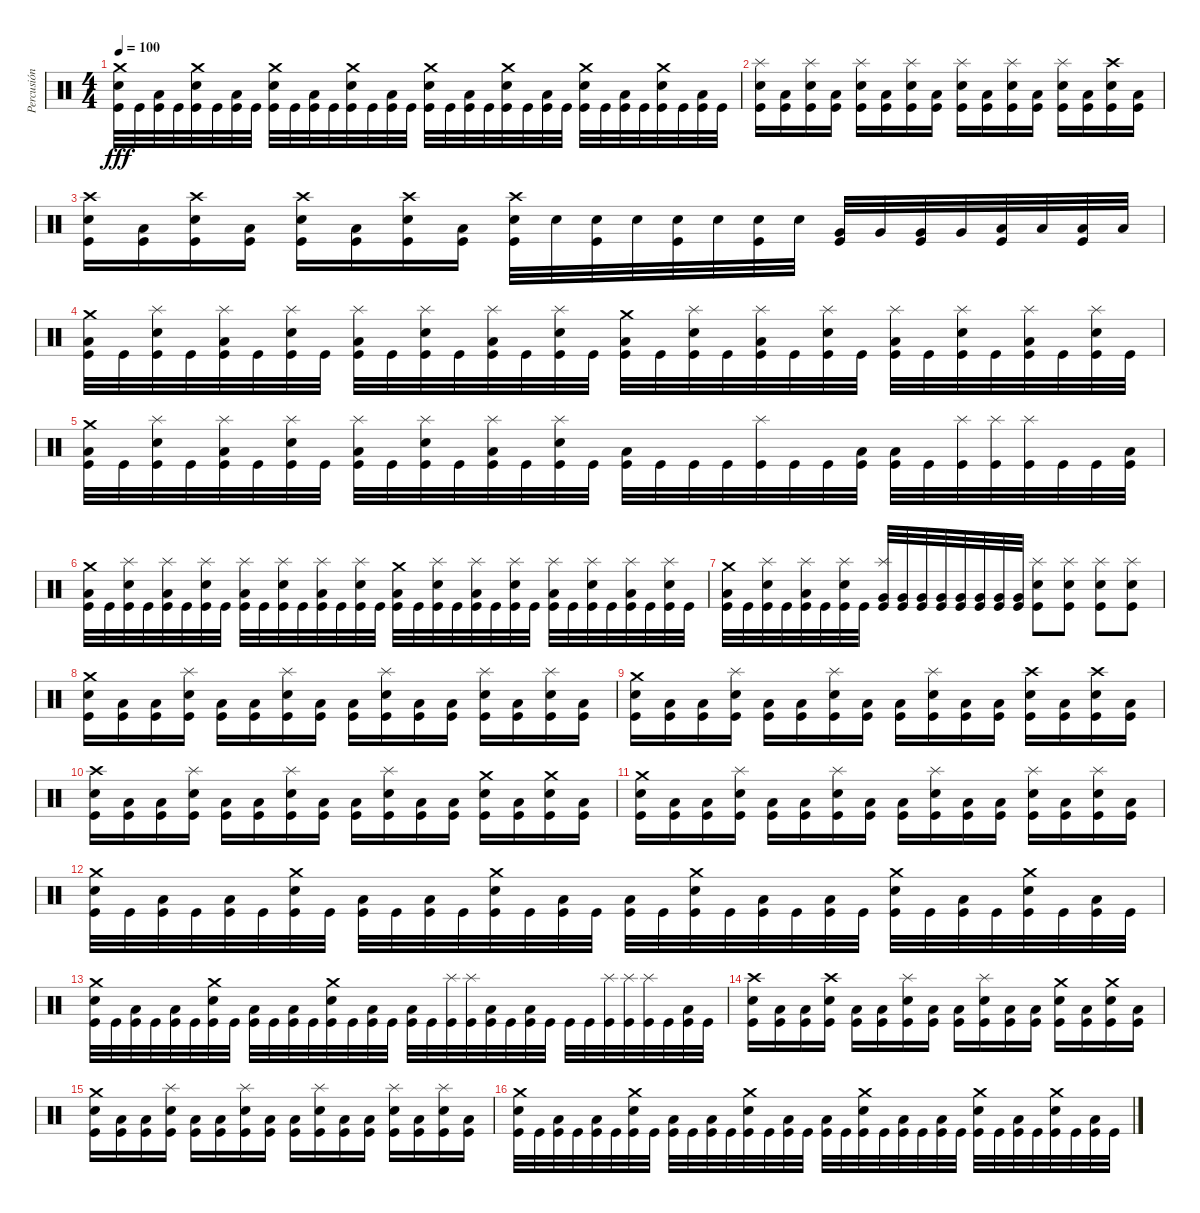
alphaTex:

\track ("Percusión" "Percusión") {instrument percussion}
\staff {score}
\articulation defaults
\ts (4 4)
\tempo 100
\clef neutral
\ks c
("Crash medium (hit)" "Snare (hit) 2" "Kick (hit)").32{dy fff} "Kick (hit)".32 ("Low Floor Tom (hit)" "Kick (hit)").32 "Kick (hit)".32 ("Crash medium (hit)" "Snare (hit) 2" "Kick (hit)").32 "Kick (hit)".32 ("Low Floor Tom (hit)" "Kick (hit)").32 "Kick (hit)".32 ("Crash medium (hit)" "Snare (hit) 2" "Kick (hit)").32 "Kick (hit)".32 ("Low Floor Tom (hit)" "Kick (hit)").32 "Kick (hit)".32 ("Crash medium (hit)" "Snare (hit) 2" "Kick (hit)").32 "Kick (hit)".32 ("Low Floor Tom (hit)" "Kick (hit)").32 "Kick (hit)".32 ("Crash medium (hit)" "Snare (hit) 2" "Kick (hit)").32 "Kick (hit)".32 ("Low Floor Tom (hit)" "Kick (hit)").32 "Kick (hit)".32 ("Crash medium (hit)" "Snare (hit) 2" "Kick (hit)").32 "Kick (hit)".32 ("Low Floor Tom (hit)" "Kick (hit)").32 "Kick (hit)".32 ("Crash medium (hit)" "Snare (hit) 2" "Kick (hit)").32 "Kick (hit)".32 ("Low Floor Tom (hit)" "Kick (hit)").32 "Kick (hit)".32 ("Crash medium (hit)" "Snare (hit) 2" "Kick (hit)").32 "Kick (hit)".32 ("Low Floor Tom (hit)" "Kick (hit)").32 "Kick (hit)".32 |
("Splash (hit)" "Snare (hit) 2" "Kick (hit)").16 ("Low Floor Tom (hit)" "Kick (hit)").16 ("Splash (hit)" "Snare (hit) 2" "Kick (hit)").16 ("Low Floor Tom (hit)" "Kick (hit)").16 ("Splash (hit)" "Snare (hit) 2" "Kick (hit)").16 ("Low Floor Tom (hit)" "Kick (hit)").16 ("Splash (hit)" "Snare (hit) 2" "Kick (hit)").16 ("Low Floor Tom (hit)" "Kick (hit)").16 ("Splash (hit)" "Snare (hit) 2" "Kick (hit)").16 ("Low Floor Tom (hit)" "Kick (hit)").16 ("Splash (hit)" "Snare (hit) 2" "Kick (hit)").16 ("Low Floor Tom (hit)" "Kick (hit)").16 ("Splash (hit)" "Snare (hit) 2" "Kick (hit)").16 ("Low Floor Tom (hit)" "Kick (hit)").16 ("Crash high (hit)" "Snare (hit) 2" "Kick (hit)").16 ("Low Floor Tom (hit)" "Kick (hit)").16 |
("Crash high (hit)" "Snare (hit) 2" "Kick (hit)").16 ("Low Floor Tom (hit)" "Kick (hit)").16 ("Crash high (hit)" "Snare (hit) 2" "Kick (hit)").16 ("Low Floor Tom (hit)" "Kick (hit)").16 ("Crash high (hit)" "Snare (hit) 2" "Kick (hit)").16 ("Low Floor Tom (hit)" "Kick (hit)").16 ("Crash high (hit)" "Snare (hit) 2" "Kick (hit)").16 ("Low Floor Tom (hit)" "Kick (hit)").16 ("Crash high (hit)" "Snare (hit) 2" "Kick (hit)").32 "Snare (hit) 2".32 ("Snare (hit) 2" "Kick (hit)").32 "Snare (hit) 2".32 ("Snare (hit) 2" "Kick (hit)").32 "Snare (hit) 2".32 ("Snare (hit) 2" "Kick (hit)").32 "Snare (hit) 2".32 ("Very Low Tom (hit)" "Kick (hit)").32 "Very Low Tom (hit)".32 ("Very Low Tom (hit)" "Kick (hit)").32 "Very Low Tom (hit)".32 ("Low Floor Tom (hit)" "Kick (hit)").32 "Low Floor Tom (hit)".32 ("Low Floor Tom (hit)" "Kick (hit)").32 "Low Floor Tom (hit)".32 |
("Crash medium (hit)" "Low Floor Tom (hit)" "Kick (hit)").32 "Kick (hit)".32 ("Splash (hit)" "Snare (hit) 2" "Kick (hit)").32 "Kick (hit)".32 ("Splash (hit)" "Low Floor Tom (hit)" "Kick (hit)").32 "Kick (hit)".32 ("Splash (hit)" "Snare (hit) 2" "Kick (hit)").32 "Kick (hit)".32 ("Splash (hit)" "Low Floor Tom (hit)" "Kick (hit)").32 "Kick (hit)".32 ("Splash (hit)" "Snare (hit) 2" "Kick (hit)").32 "Kick (hit)".32 ("Splash (hit)" "Low Floor Tom (hit)" "Kick (hit)").32 "Kick (hit)".32 ("Splash (hit)" "Snare (hit) 2" "Kick (hit)").32 "Kick (hit)".32 ("Crash medium (hit)" "Low Floor Tom (hit)" "Kick (hit)").32 "Kick (hit)".32 ("Splash (hit)" "Snare (hit) 2" "Kick (hit)").32 "Kick (hit)".32 ("Splash (hit)" "Low Floor Tom (hit)" "Kick (hit)").32 "Kick (hit)".32 ("Splash (hit)" "Snare (hit) 2" "Kick (hit)").32 "Kick (hit)".32 ("Splash (hit)" "Low Floor Tom (hit)" "Kick (hit)").32 "Kick (hit)".32 ("Splash (hit)" "Snare (hit) 2" "Kick (hit)").32 "Kick (hit)".32 ("Splash (hit)" "Low Floor Tom (hit)" "Kick (hit)").32 "Kick (hit)".32 ("Splash (hit)" "Snare (hit) 2" "Kick (hit)").32 "Kick (hit)".32 |
("Crash medium (hit)" "Low Floor Tom (hit)" "Kick (hit)").32 "Kick (hit)".32 ("Splash (hit)" "Snare (hit) 2" "Kick (hit)").32 "Kick (hit)".32 ("Splash (hit)" "Low Floor Tom (hit)" "Kick (hit)").32 "Kick (hit)".32 ("Splash (hit)" "Snare (hit) 2" "Kick (hit)").32 "Kick (hit)".32 ("Splash (hit)" "Low Floor Tom (hit)" "Kick (hit)").32 "Kick (hit)".32 ("Splash (hit)" "Snare (hit) 2" "Kick (hit)").32 "Kick (hit)".32 ("Splash (hit)" "Low Floor Tom (hit)" "Kick (hit)").32 "Kick (hit)".32 ("Splash (hit)" "Snare (hit) 2" "Kick (hit)").32 "Kick (hit)".32 ("Low Floor Tom (hit)" "Kick (hit)").32 "Kick (hit)".32 "Kick (hit)".32 "Kick (hit)".32 ("Splash (hit)" "Kick (hit)").32 "Kick (hit)".32 "Kick (hit)".32 ("Low Floor Tom (hit)" "Kick (hit)").32 ("Low Floor Tom (hit)" "Kick (hit)").32 "Kick (hit)".32 ("Splash (hit)" "Kick (hit)").32 ("Splash (hit)" "Kick (hit)").32 ("Splash (hit)" "Kick (hit)").32 "Kick (hit)".32 "Kick (hit)".32 ("Low Floor Tom (hit)" "Kick (hit)").32 |
("Crash medium (hit)" "Low Floor Tom (hit)" "Kick (hit)").32 "Kick (hit)".32 ("Splash (hit)" "Snare (hit) 2" "Kick (hit)").32 "Kick (hit)".32 ("Splash (hit)" "Low Floor Tom (hit)" "Kick (hit)").32 "Kick (hit)".32 ("Splash (hit)" "Snare (hit) 2" "Kick (hit)").32 "Kick (hit)".32 ("Splash (hit)" "Low Floor Tom (hit)" "Kick (hit)").32 "Kick (hit)".32 ("Splash (hit)" "Snare (hit) 2" "Kick (hit)").32 "Kick (hit)".32 ("Splash (hit)" "Low Floor Tom (hit)" "Kick (hit)").32 "Kick (hit)".32 ("Splash (hit)" "Snare (hit) 2" "Kick (hit)").32 "Kick (hit)".32 ("Crash medium (hit)" "Low Floor Tom (hit)" "Kick (hit)").32 "Kick (hit)".32 ("Splash (hit)" "Snare (hit) 2" "Kick (hit)").32 "Kick (hit)".32 ("Splash (hit)" "Low Floor Tom (hit)" "Kick (hit)").32 "Kick (hit)".32 ("Splash (hit)" "Snare (hit) 2" "Kick (hit)").32 "Kick (hit)".32 ("Splash (hit)" "Low Floor Tom (hit)" "Kick (hit)").32 "Kick (hit)".32 ("Splash (hit)" "Snare (hit) 2" "Kick (hit)").32 "Kick (hit)".32 ("Splash (hit)" "Low Floor Tom (hit)" "Kick (hit)").32 "Kick (hit)".32 ("Splash (hit)" "Snare (hit) 2" "Kick (hit)").32 "Kick (hit)".32 |
("Crash medium (hit)" "Low Floor Tom (hit)" "Kick (hit)").32 "Kick (hit)".32 ("Splash (hit)" "Snare (hit) 2" "Kick (hit)").32 "Kick (hit)".32 ("Splash (hit)" "Low Floor Tom (hit)" "Kick (hit)").32 "Kick (hit)".32 ("Splash (hit)" "Snare (hit) 2" "Kick (hit)").32 "Kick (hit)".32 ("Splash (hit)" "Very Low Tom (hit)" "Kick (hit)").32 ("Very Low Tom (hit)" "Kick (hit)").32 ("Very Low Tom (hit)" "Kick (hit)").32 ("Very Low Tom (hit)" "Kick (hit)").32 ("Very Low Tom (hit)" "Kick (hit)").32 ("Very Low Tom (hit)" "Kick (hit)").32 ("Very Low Tom (hit)" "Kick (hit)").32 ("Very Low Tom (hit)" "Kick (hit)").32 ("Splash (hit)" "Snare (hit) 2" "Kick (hit)").8 ("Splash (hit)" "Snare (hit) 2" "Kick (hit)").8 ("Splash (hit)" "Snare (hit) 2" "Kick (hit)").8 ("Splash (hit)" "Snare (hit) 2" "Kick (hit)").8 |
("Crash medium (hit)" "Snare (hit) 2" "Kick (hit)").16 ("Low Floor Tom (hit)" "Kick (hit)").16 ("Low Floor Tom (hit)" "Kick (hit)").16 ("Splash (hit)" "Snare (hit) 2" "Kick (hit)").16 ("Low Floor Tom (hit)" "Kick (hit)").16 ("Low Floor Tom (hit)" "Kick (hit)").16 ("Splash (hit)" "Snare (hit) 2" "Kick (hit)").16 ("Low Floor Tom (hit)" "Kick (hit)").16 ("Low Floor Tom (hit)" "Kick (hit)").16 ("Splash (hit)" "Snare (hit) 2" "Kick (hit)").16 ("Low Floor Tom (hit)" "Kick (hit)").16 ("Low Floor Tom (hit)" "Kick (hit)").16 ("Splash (hit)" "Snare (hit) 2" "Kick (hit)").16 ("Low Floor Tom (hit)" "Kick (hit)").16 ("Splash (hit)" "Snare (hit) 2" "Kick (hit)").16 ("Low Floor Tom (hit)" "Kick (hit)").16 |
("Crash medium (hit)" "Snare (hit) 2" "Kick (hit)").16 ("Low Floor Tom (hit)" "Kick (hit)").16 ("Low Floor Tom (hit)" "Kick (hit)").16 ("Splash (hit)" "Snare (hit) 2" "Kick (hit)").16 ("Low Floor Tom (hit)" "Kick (hit)").16 ("Low Floor Tom (hit)" "Kick (hit)").16 ("Splash (hit)" "Snare (hit) 2" "Kick (hit)").16 ("Low Floor Tom (hit)" "Kick (hit)").16 ("Low Floor Tom (hit)" "Kick (hit)").16 ("Splash (hit)" "Snare (hit) 2" "Kick (hit)").16 ("Low Floor Tom (hit)" "Kick (hit)").16 ("Low Floor Tom (hit)" "Kick (hit)").16 ("Crash high (hit)" "Snare (hit) 2" "Kick (hit)").16 ("Low Floor Tom (hit)" "Kick (hit)").16 ("Crash high (hit)" "Snare (hit) 2" "Kick (hit)").16 ("Low Floor Tom (hit)" "Kick (hit)").16 |
("Crash high (hit)" "Snare (hit) 2" "Kick (hit)").16 ("Low Floor Tom (hit)" "Kick (hit)").16 ("Low Floor Tom (hit)" "Kick (hit)").16 ("Splash (hit)" "Snare (hit) 2" "Kick (hit)").16 ("Low Floor Tom (hit)" "Kick (hit)").16 ("Low Floor Tom (hit)" "Kick (hit)").16 ("Splash (hit)" "Snare (hit) 2" "Kick (hit)").16 ("Low Floor Tom (hit)" "Kick (hit)").16 ("Low Floor Tom (hit)" "Kick (hit)").16 ("Splash (hit)" "Snare (hit) 2" "Kick (hit)").16 ("Low Floor Tom (hit)" "Kick (hit)").16 ("Low Floor Tom (hit)" "Kick (hit)").16 ("Crash medium (hit)" "Snare (hit) 2" "Kick (hit)").16 ("Low Floor Tom (hit)" "Kick (hit)").16 ("Crash medium (hit)" "Snare (hit) 2" "Kick (hit)").16 ("Low Floor Tom (hit)" "Kick (hit)").16 |
("Crash medium (hit)" "Snare (hit) 2" "Kick (hit)").16 ("Low Floor Tom (hit)" "Kick (hit)").16 ("Low Floor Tom (hit)" "Kick (hit)").16 ("Splash (hit)" "Snare (hit) 2" "Kick (hit)").16 ("Low Floor Tom (hit)" "Kick (hit)").16 ("Low Floor Tom (hit)" "Kick (hit)").16 ("Splash (hit)" "Snare (hit) 2" "Kick (hit)").16 ("Low Floor Tom (hit)" "Kick (hit)").16 ("Low Floor Tom (hit)" "Kick (hit)").16 ("Splash (hit)" "Snare (hit) 2" "Kick (hit)").16 ("Low Floor Tom (hit)" "Kick (hit)").16 ("Low Floor Tom (hit)" "Kick (hit)").16 ("Splash (hit)" "Snare (hit) 2" "Kick (hit)").16 ("Low Floor Tom (hit)" "Kick (hit)").16 ("Splash (hit)" "Snare (hit) 2" "Kick (hit)").16 ("Low Floor Tom (hit)" "Kick (hit)").16 |
("Crash medium (hit)" "Snare (hit) 2" "Kick (hit)").32 "Kick (hit)".32 ("Low Floor Tom (hit)" "Kick (hit)").32 "Kick (hit)".32 ("Low Floor Tom (hit)" "Kick (hit)").32 "Kick (hit)".32 ("Crash medium (hit)" "Snare (hit) 2" "Kick (hit)").32 "Kick (hit)".32 ("Low Floor Tom (hit)" "Kick (hit)").32 "Kick (hit)".32 ("Low Floor Tom (hit)" "Kick (hit)").32 "Kick (hit)".32 ("Crash medium (hit)" "Snare (hit) 2" "Kick (hit)").32 "Kick (hit)".32 ("Low Floor Tom (hit)" "Kick (hit)").32 "Kick (hit)".32 ("Low Floor Tom (hit)" "Kick (hit)").32 "Kick (hit)".32 ("Crash medium (hit)" "Snare (hit) 2" "Kick (hit)").32 "Kick (hit)".32 ("Low Floor Tom (hit)" "Kick (hit)").32 "Kick (hit)".32 ("Low Floor Tom (hit)" "Kick (hit)").32 "Kick (hit)".32 ("Crash medium (hit)" "Snare (hit) 2" "Kick (hit)").32 "Kick (hit)".32 ("Low Floor Tom (hit)" "Kick (hit)").32 "Kick (hit)".32 ("Crash medium (hit)" "Snare (hit) 2" "Kick (hit)").32 "Kick (hit)".32 ("Low Floor Tom (hit)" "Kick (hit)").32 "Kick (hit)".32 |
("Crash medium (hit)" "Snare (hit) 2" "Kick (hit)").32 "Kick (hit)".32 ("Low Floor Tom (hit)" "Kick (hit)").32 "Kick (hit)".32 ("Low Floor Tom (hit)" "Kick (hit)").32 "Kick (hit)".32 ("Crash medium (hit)" "Snare (hit) 2" "Kick (hit)").32 "Kick (hit)".32 ("Low Floor Tom (hit)" "Kick (hit)").32 "Kick (hit)".32 ("Low Floor Tom (hit)" "Kick (hit)").32 "Kick (hit)".32 ("Crash medium (hit)" "Snare (hit) 2" "Kick (hit)").32 "Kick (hit)".32 ("Low Floor Tom (hit)" "Kick (hit)").32 "Kick (hit)".32 ("Low Floor Tom (hit)" "Kick (hit)").32 "Kick (hit)".32 ("Splash (hit)" "Kick (hit)").32 ("Splash (hit)" "Kick (hit)").32 ("Low Floor Tom (hit)" "Kick (hit)").32 "Kick (hit)".32 ("Low Floor Tom (hit)" "Kick (hit)").32 "Kick (hit)".32 "Kick (hit)".32 "Kick (hit)".32 ("Splash (hit)" "Kick (hit)").32 ("Splash (hit)" "Kick (hit)").32 ("Splash (hit)" "Kick (hit)").32 "Kick (hit)".32 ("Low Floor Tom (hit)" "Kick (hit)").32 "Kick (hit)".32 |
("Crash high (hit)" "Snare (hit) 2" "Kick (hit)").16 ("Low Floor Tom (hit)" "Kick (hit)").16 ("Low Floor Tom (hit)" "Kick (hit)").16 ("Crash high (hit)" "Snare (hit) 2" "Kick (hit)").16 ("Low Floor Tom (hit)" "Kick (hit)").16 ("Low Floor Tom (hit)" "Kick (hit)").16 ("Splash (hit)" "Snare (hit) 2" "Kick (hit)").16 ("Low Floor Tom (hit)" "Kick (hit)").16 ("Low Floor Tom (hit)" "Kick (hit)").16 ("Splash (hit)" "Snare (hit) 2" "Kick (hit)").16 ("Low Floor Tom (hit)" "Kick (hit)").16 ("Low Floor Tom (hit)" "Kick (hit)").16 ("Crash medium (hit)" "Snare (hit) 2" "Kick (hit)").16 ("Low Floor Tom (hit)" "Kick (hit)").16 ("Crash medium (hit)" "Snare (hit) 2" "Kick (hit)").16 ("Low Floor Tom (hit)" "Kick (hit)").16 |
("Crash medium (hit)" "Snare (hit) 2" "Kick (hit)").16 ("Low Floor Tom (hit)" "Kick (hit)").16 ("Low Floor Tom (hit)" "Kick (hit)").16 ("Splash (hit)" "Snare (hit) 2" "Kick (hit)").16 ("Low Floor Tom (hit)" "Kick (hit)").16 ("Low Floor Tom (hit)" "Kick (hit)").16 ("Splash (hit)" "Snare (hit) 2" "Kick (hit)").16 ("Low Floor Tom (hit)" "Kick (hit)").16 ("Low Floor Tom (hit)" "Kick (hit)").16 ("Splash (hit)" "Snare (hit) 2" "Kick (hit)").16 ("Low Floor Tom (hit)" "Kick (hit)").16 ("Low Floor Tom (hit)" "Kick (hit)").16 ("Splash (hit)" "Snare (hit) 2" "Kick (hit)").16 ("Low Floor Tom (hit)" "Kick (hit)").16 ("Splash (hit)" "Snare (hit) 2" "Kick (hit)").16 ("Low Floor Tom (hit)" "Kick (hit)").16 |
("Crash medium (hit)" "Snare (hit) 2" "Kick (hit)").32 "Kick (hit)".32 ("Low Floor Tom (hit)" "Kick (hit)").32 "Kick (hit)".32 ("Low Floor Tom (hit)" "Kick (hit)").32 "Kick (hit)".32 ("Crash medium (hit)" "Snare (hit) 2" "Kick (hit)").32 "Kick (hit)".32 ("Low Floor Tom (hit)" "Kick (hit)").32 "Kick (hit)".32 ("Low Floor Tom (hit)" "Kick (hit)").32 "Kick (hit)".32 ("Crash medium (hit)" "Snare (hit) 2" "Kick (hit)").32 "Kick (hit)".32 ("Low Floor Tom (hit)" "Kick (hit)").32 "Kick (hit)".32 ("Low Floor Tom (hit)" "Kick (hit)").32 "Kick (hit)".32 ("Crash medium (hit)" "Snare (hit) 2" "Kick (hit)").32 "Kick (hit)".32 ("Low Floor Tom (hit)" "Kick (hit)").32 "Kick (hit)".32 ("Low Floor Tom (hit)" "Kick (hit)").32 "Kick (hit)".32 ("Crash medium (hit)" "Snare (hit) 2" "Kick (hit)").32 "Kick (hit)".32 ("Low Floor Tom (hit)" "Kick (hit)").32 "Kick (hit)".32 ("Crash medium (hit)" "Snare (hit) 2" "Kick (hit)").32 "Kick (hit)".32 ("Low Floor Tom (hit)" "Kick (hit)").32 "Kick (hit)".32
